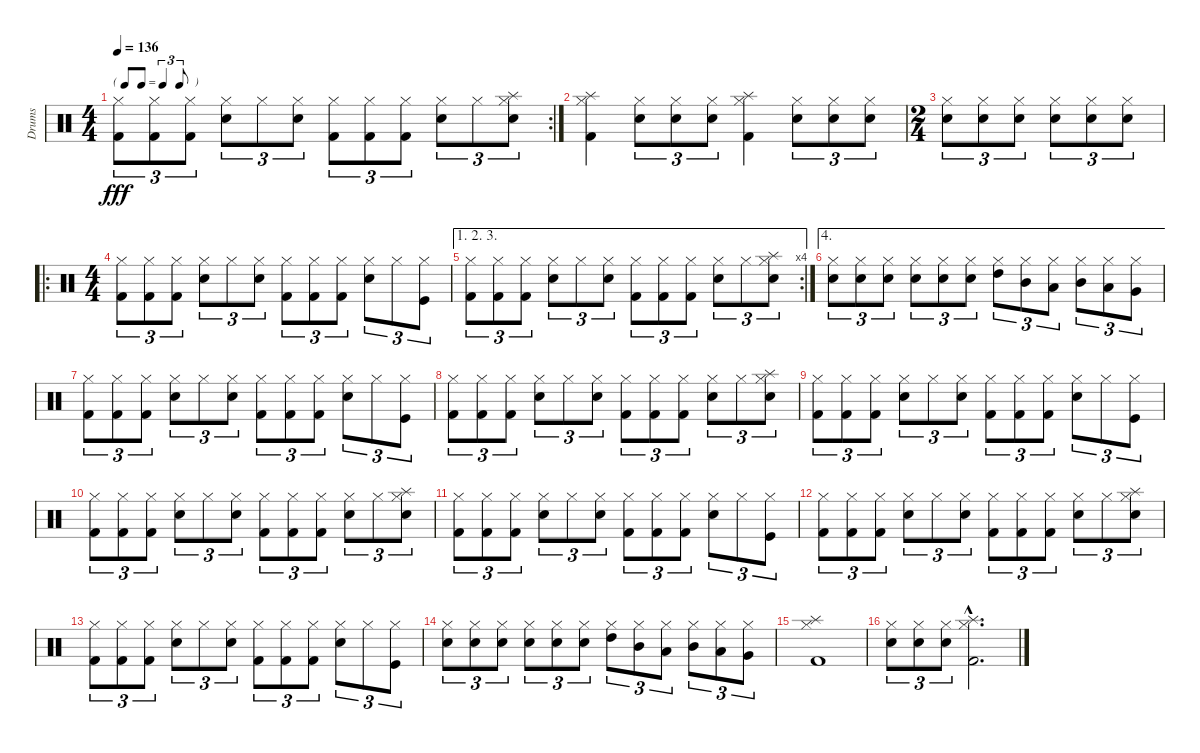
\track ("Drums" "Drums") {instrument percussion}
\staff {score}
\articulation defaults
\rc 2
\ts (4 4)
\tf triplet8th
\tempo 136
\clef neutral
\ks c
("Hi-Hat (closed)" "Kick (hit) 2").8{tu (3 2) dy fff} ("Hi-Hat (closed)" "Kick (hit) 2").8{tu (3 2)} ("Hi-Hat (closed)" "Kick (hit) 2").8{tu (3 2)} ("Hi-Hat (closed)" "Snare (hit) 2").8{tu (3 2)} "Hi-Hat (closed)".8{tu (3 2)} ("Hi-Hat (closed)" "Snare (hit) 2").8{tu (3 2)} ("Hi-Hat (closed)" "Kick (hit) 2").8{tu (3 2)} ("Hi-Hat (closed)" "Kick (hit) 2").8{tu (3 2)} ("Hi-Hat (closed)" "Kick (hit) 2").8{tu (3 2)} ("Hi-Hat (closed)" "Snare (hit) 2").8{tu (3 2)} "Hi-Hat (closed)".8{tu (3 2)} ("Hi-Hat (closed)" "Snare (hit) 2" "Splash (hit)").8{tu (3 2)} |
("Hi-Hat (closed)" "Kick (hit) 2" "Splash (hit)").4 ("Hi-Hat (closed)" "Snare (hit) 2").8{tu (3 2)} ("Hi-Hat (closed)" "Snare (hit) 2").8{tu (3 2)} ("Hi-Hat (closed)" "Snare (hit) 2").8{tu (3 2)} ("Hi-Hat (closed)" "Kick (hit) 2" "Splash (hit)").4 ("Hi-Hat (closed)" "Snare (hit) 2").8{tu (3 2)} ("Hi-Hat (closed)" "Snare (hit) 2").8{tu (3 2)} ("Hi-Hat (closed)" "Snare (hit) 2").8{tu (3 2)} |
\ts (2 4)
("Hi-Hat (closed)" "Snare (hit) 2").8{tu (3 2)} ("Hi-Hat (closed)" "Snare (hit) 2").8{tu (3 2)} ("Hi-Hat (closed)" "Snare (hit) 2").8{tu (3 2)} ("Hi-Hat (closed)" "Snare (hit) 2").8{tu (3 2)} ("Hi-Hat (closed)" "Snare (hit) 2").8{tu (3 2)} ("Hi-Hat (closed)" "Snare (hit) 2").8{tu (3 2)} |
\ro
\ts (4 4)
("Hi-Hat (closed)" "Kick (hit) 2").8{tu (3 2)} ("Hi-Hat (closed)" "Kick (hit) 2").8{tu (3 2)} ("Hi-Hat (closed)" "Kick (hit) 2").8{tu (3 2)} ("Hi-Hat (closed)" "Snare (hit) 2").8{tu (3 2)} "Hi-Hat (closed)".8{tu (3 2)} ("Hi-Hat (closed)" "Snare (hit) 2").8{tu (3 2)} ("Hi-Hat (closed)" "Kick (hit) 2").8{tu (3 2)} ("Hi-Hat (closed)" "Kick (hit) 2").8{tu (3 2)} ("Hi-Hat (closed)" "Kick (hit) 2").8{tu (3 2)} ("Hi-Hat (closed)" "Snare (hit) 2").8{tu (3 2)} "Hi-Hat (closed)".8{tu (3 2)} ("Hi-Hat (closed)" "Kick (hit)").8{tu (3 2)} |
\ae (1 2 3)
\rc 4
("Hi-Hat (closed)" "Kick (hit) 2").8{tu (3 2)} ("Hi-Hat (closed)" "Kick (hit) 2").8{tu (3 2)} ("Hi-Hat (closed)" "Kick (hit) 2").8{tu (3 2)} ("Hi-Hat (closed)" "Snare (hit) 2").8{tu (3 2)} "Hi-Hat (closed)".8{tu (3 2)} ("Hi-Hat (closed)" "Snare (hit) 2").8{tu (3 2)} ("Hi-Hat (closed)" "Kick (hit) 2").8{tu (3 2)} ("Hi-Hat (closed)" "Kick (hit) 2").8{tu (3 2)} ("Hi-Hat (closed)" "Kick (hit) 2").8{tu (3 2)} ("Hi-Hat (closed)" "Snare (hit) 2").8{tu (3 2)} "Hi-Hat (closed)".8{tu (3 2)} ("Hi-Hat (closed)" "Snare (hit) 2" "Splash (hit)").8{tu (3 2)} |
\ae 4
("Hi-Hat (closed)" "Snare (hit) 2").8{tu (3 2)} ("Hi-Hat (closed)" "Snare (hit) 2").8{tu (3 2)} ("Hi-Hat (closed)" "Snare (hit) 2").8{tu (3 2)} ("Hi-Hat (closed)" "Snare (hit) 2").8{tu (3 2)} ("Hi-Hat (closed)" "Snare (hit) 2").8{tu (3 2)} ("Hi-Hat (closed)" "Snare (hit) 2").8{tu (3 2)} ("Hi-Hat (closed)" "High Tom (hit)").8{tu (3 2)} ("Hi-Hat (closed)" "Mid Tom (hit)").8{tu (3 2)} ("Hi-Hat (closed)" "Low Tom (hit)").8{tu (3 2)} ("Hi-Hat (closed)" "Mid Tom (hit)").8{tu (3 2)} ("Hi-Hat (closed)" "Low Tom (hit)").8{tu (3 2)} ("Hi-Hat (closed)" "Very Low Tom (hit)").8{tu (3 2)} |
("Hi-Hat (closed)" "Kick (hit) 2").8{tu (3 2)} ("Hi-Hat (closed)" "Kick (hit) 2").8{tu (3 2)} ("Hi-Hat (closed)" "Kick (hit) 2").8{tu (3 2)} ("Hi-Hat (closed)" "Snare (hit) 2").8{tu (3 2)} "Hi-Hat (closed)".8{tu (3 2)} ("Hi-Hat (closed)" "Snare (hit) 2").8{tu (3 2)} ("Hi-Hat (closed)" "Kick (hit) 2").8{tu (3 2)} ("Hi-Hat (closed)" "Kick (hit) 2").8{tu (3 2)} ("Hi-Hat (closed)" "Kick (hit) 2").8{tu (3 2)} ("Hi-Hat (closed)" "Snare (hit) 2").8{tu (3 2)} "Hi-Hat (closed)".8{tu (3 2)} ("Hi-Hat (closed)" "Kick (hit)").8{tu (3 2)} |
("Hi-Hat (closed)" "Kick (hit) 2").8{tu (3 2)} ("Hi-Hat (closed)" "Kick (hit) 2").8{tu (3 2)} ("Hi-Hat (closed)" "Kick (hit) 2").8{tu (3 2)} ("Hi-Hat (closed)" "Snare (hit) 2").8{tu (3 2)} "Hi-Hat (closed)".8{tu (3 2)} ("Hi-Hat (closed)" "Snare (hit) 2").8{tu (3 2)} ("Hi-Hat (closed)" "Kick (hit) 2").8{tu (3 2)} ("Hi-Hat (closed)" "Kick (hit) 2").8{tu (3 2)} ("Hi-Hat (closed)" "Kick (hit) 2").8{tu (3 2)} ("Hi-Hat (closed)" "Snare (hit) 2").8{tu (3 2)} "Hi-Hat (closed)".8{tu (3 2)} ("Hi-Hat (closed)" "Snare (hit) 2" "Splash (hit)").8{tu (3 2)} |
("Hi-Hat (closed)" "Kick (hit) 2").8{tu (3 2)} ("Hi-Hat (closed)" "Kick (hit) 2").8{tu (3 2)} ("Hi-Hat (closed)" "Kick (hit) 2").8{tu (3 2)} ("Hi-Hat (closed)" "Snare (hit) 2").8{tu (3 2)} "Hi-Hat (closed)".8{tu (3 2)} ("Hi-Hat (closed)" "Snare (hit) 2").8{tu (3 2)} ("Hi-Hat (closed)" "Kick (hit) 2").8{tu (3 2)} ("Hi-Hat (closed)" "Kick (hit) 2").8{tu (3 2)} ("Hi-Hat (closed)" "Kick (hit) 2").8{tu (3 2)} ("Hi-Hat (closed)" "Snare (hit) 2").8{tu (3 2)} "Hi-Hat (closed)".8{tu (3 2)} ("Hi-Hat (closed)" "Kick (hit)").8{tu (3 2)} |
("Hi-Hat (closed)" "Kick (hit) 2").8{tu (3 2)} ("Hi-Hat (closed)" "Kick (hit) 2").8{tu (3 2)} ("Hi-Hat (closed)" "Kick (hit) 2").8{tu (3 2)} ("Hi-Hat (closed)" "Snare (hit) 2").8{tu (3 2)} "Hi-Hat (closed)".8{tu (3 2)} ("Hi-Hat (closed)" "Snare (hit) 2").8{tu (3 2)} ("Hi-Hat (closed)" "Kick (hit) 2").8{tu (3 2)} ("Hi-Hat (closed)" "Kick (hit) 2").8{tu (3 2)} ("Hi-Hat (closed)" "Kick (hit) 2").8{tu (3 2)} ("Hi-Hat (closed)" "Snare (hit) 2").8{tu (3 2)} "Hi-Hat (closed)".8{tu (3 2)} ("Hi-Hat (closed)" "Snare (hit) 2" "Splash (hit)").8{tu (3 2)} |
("Hi-Hat (closed)" "Kick (hit) 2").8{tu (3 2)} ("Hi-Hat (closed)" "Kick (hit) 2").8{tu (3 2)} ("Hi-Hat (closed)" "Kick (hit) 2").8{tu (3 2)} ("Hi-Hat (closed)" "Snare (hit) 2").8{tu (3 2)} "Hi-Hat (closed)".8{tu (3 2)} ("Hi-Hat (closed)" "Snare (hit) 2").8{tu (3 2)} ("Hi-Hat (closed)" "Kick (hit) 2").8{tu (3 2)} ("Hi-Hat (closed)" "Kick (hit) 2").8{tu (3 2)} ("Hi-Hat (closed)" "Kick (hit) 2").8{tu (3 2)} ("Hi-Hat (closed)" "Snare (hit) 2").8{tu (3 2)} "Hi-Hat (closed)".8{tu (3 2)} ("Hi-Hat (closed)" "Kick (hit)").8{tu (3 2)} |
("Hi-Hat (closed)" "Kick (hit) 2").8{tu (3 2)} ("Hi-Hat (closed)" "Kick (hit) 2").8{tu (3 2)} ("Hi-Hat (closed)" "Kick (hit) 2").8{tu (3 2)} ("Hi-Hat (closed)" "Snare (hit) 2").8{tu (3 2)} "Hi-Hat (closed)".8{tu (3 2)} ("Hi-Hat (closed)" "Snare (hit) 2").8{tu (3 2)} ("Hi-Hat (closed)" "Kick (hit) 2").8{tu (3 2)} ("Hi-Hat (closed)" "Kick (hit) 2").8{tu (3 2)} ("Hi-Hat (closed)" "Kick (hit) 2").8{tu (3 2)} ("Hi-Hat (closed)" "Snare (hit) 2").8{tu (3 2)} "Hi-Hat (closed)".8{tu (3 2)} ("Hi-Hat (closed)" "Snare (hit) 2" "Splash (hit)").8{tu (3 2)} |
("Hi-Hat (closed)" "Kick (hit) 2").8{tu (3 2)} ("Hi-Hat (closed)" "Kick (hit) 2").8{tu (3 2)} ("Hi-Hat (closed)" "Kick (hit) 2").8{tu (3 2)} ("Hi-Hat (closed)" "Snare (hit) 2").8{tu (3 2)} "Hi-Hat (closed)".8{tu (3 2)} ("Hi-Hat (closed)" "Snare (hit) 2").8{tu (3 2)} ("Hi-Hat (closed)" "Kick (hit) 2").8{tu (3 2)} ("Hi-Hat (closed)" "Kick (hit) 2").8{tu (3 2)} ("Hi-Hat (closed)" "Kick (hit) 2").8{tu (3 2)} ("Hi-Hat (closed)" "Snare (hit) 2").8{tu (3 2)} "Hi-Hat (closed)".8{tu (3 2)} ("Hi-Hat (closed)" "Kick (hit)").8{tu (3 2)} |
("Hi-Hat (closed)" "Snare (hit) 2").8{tu (3 2)} ("Hi-Hat (closed)" "Snare (hit) 2").8{tu (3 2)} ("Hi-Hat (closed)" "Snare (hit) 2").8{tu (3 2)} ("Hi-Hat (closed)" "Snare (hit) 2").8{tu (3 2)} ("Hi-Hat (closed)" "Snare (hit) 2").8{tu (3 2)} ("Hi-Hat (closed)" "Snare (hit) 2").8{tu (3 2)} ("Hi-Hat (closed)" "High Tom (hit)").8{tu (3 2)} ("Hi-Hat (closed)" "Mid Tom (hit)").8{tu (3 2)} ("Hi-Hat (closed)" "Low Tom (hit)").8{tu (3 2)} ("Hi-Hat (closed)" "Mid Tom (hit)").8{tu (3 2)} ("Hi-Hat (closed)" "Low Tom (hit)").8{tu (3 2)} ("Hi-Hat (closed)" "Very Low Tom (hit)").8{tu (3 2)} |
("Hi-Hat (closed)" "Kick (hit) 2" "Splash (hit)").1 |
("Hi-Hat (closed)" "Snare (hit) 2").8{tu (3 2)} ("Hi-Hat (closed)" "Snare (hit) 2").8{tu (3 2)} ("Hi-Hat (closed)" "Snare (hit) 2").8{tu (3 2)} ("Hi-Hat (closed)"{hac} "Kick (hit) 2"{hac} "Splash (hit)"{hac}).2{d}
